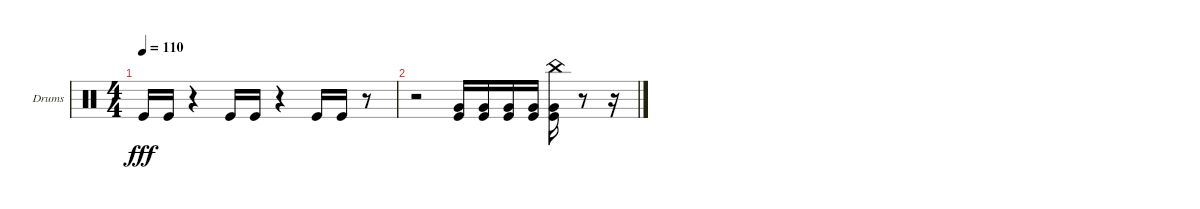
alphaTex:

\bracketExtendMode groupsimilarinstruments
\firstSystemTrackNameOrientation horizontal
\otherSystemsTrackNameOrientation horizontal
\track ("Drumkit" "Drums") {instrument percussion}
\staff {score}
\articulation defaults
\ts (4 4)
\tempo 110
\clef neutral
\scale
0.333333
\ks aminor "Kick (hit)".16{dy fff} "Kick (hit)".16
r.4 "Kick (hit)".16 "Kick (hit)".16 r.4 "Kick (hit)".16 "Kick (hit)".16 r.8 |
\scale
0.333333 r.2 ("Kick (hit)" "Very Low Tom (hit)").16 ("Kick (hit)" "Very Low Tom (hit)").16 ("Kick (hit)" "Very Low Tom (hit)").16 ("Kick (hit)" "Very Low Tom (hit)").16 ("Kick (hit)" "Very Low Tom (hit)" "China (hit)").16 r.8 r.16 |
\scale
0.333333
